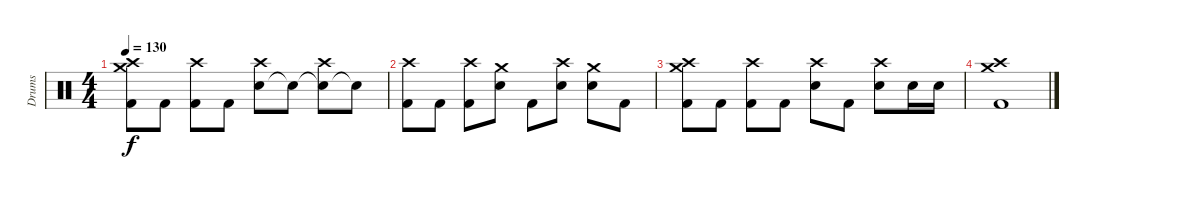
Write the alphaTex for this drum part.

\track ("Drums" "Drums") {instrument percussion}
\staff {score}
\articulation defaults
\ts (4 4)
\tempo 130
\clef neutral
\ks c
("Kick (hit) 2" "Crash medium (hit)" "Crash high (hit)").8{dy f} "Kick (hit) 2".8 ("Kick (hit) 2" "Crash high (hit)").8 "Kick (hit) 2".8 ("Electric Snare (hit)" "Crash high (hit)").8 "Snare (hit)"{t}.8 ("Snare (hit)"{t} "Crash high (hit)").8 "Snare (hit)"{t}.8 |
("Kick (hit) 2" "Crash high (hit)").8 "Kick (hit) 2".8 ("Kick (hit) 2" "Crash high (hit)").8 ("Electric Snare (hit)" "Crash medium (hit)").8 "Kick (hit) 2".8 ("Electric Snare (hit)" "Crash high (hit)").8 ("Electric Snare (hit)" "Crash medium (hit)").8 "Kick (hit) 2".8 |
("Kick (hit) 2" "Crash high (hit)" "Crash medium (hit)").8 "Kick (hit) 2".8 ("Kick (hit) 2" "Crash high (hit)").8 "Kick (hit) 2".8 ("Electric Snare (hit)" "Crash high (hit)").8 "Kick (hit) 2".8 ("Electric Snare (hit)" "Crash high (hit)").8 "Electric Snare (hit)".16 "Electric Snare (hit)".16 |
("Kick (hit) 2" "Crash medium (hit)" "Crash high (hit)").1
